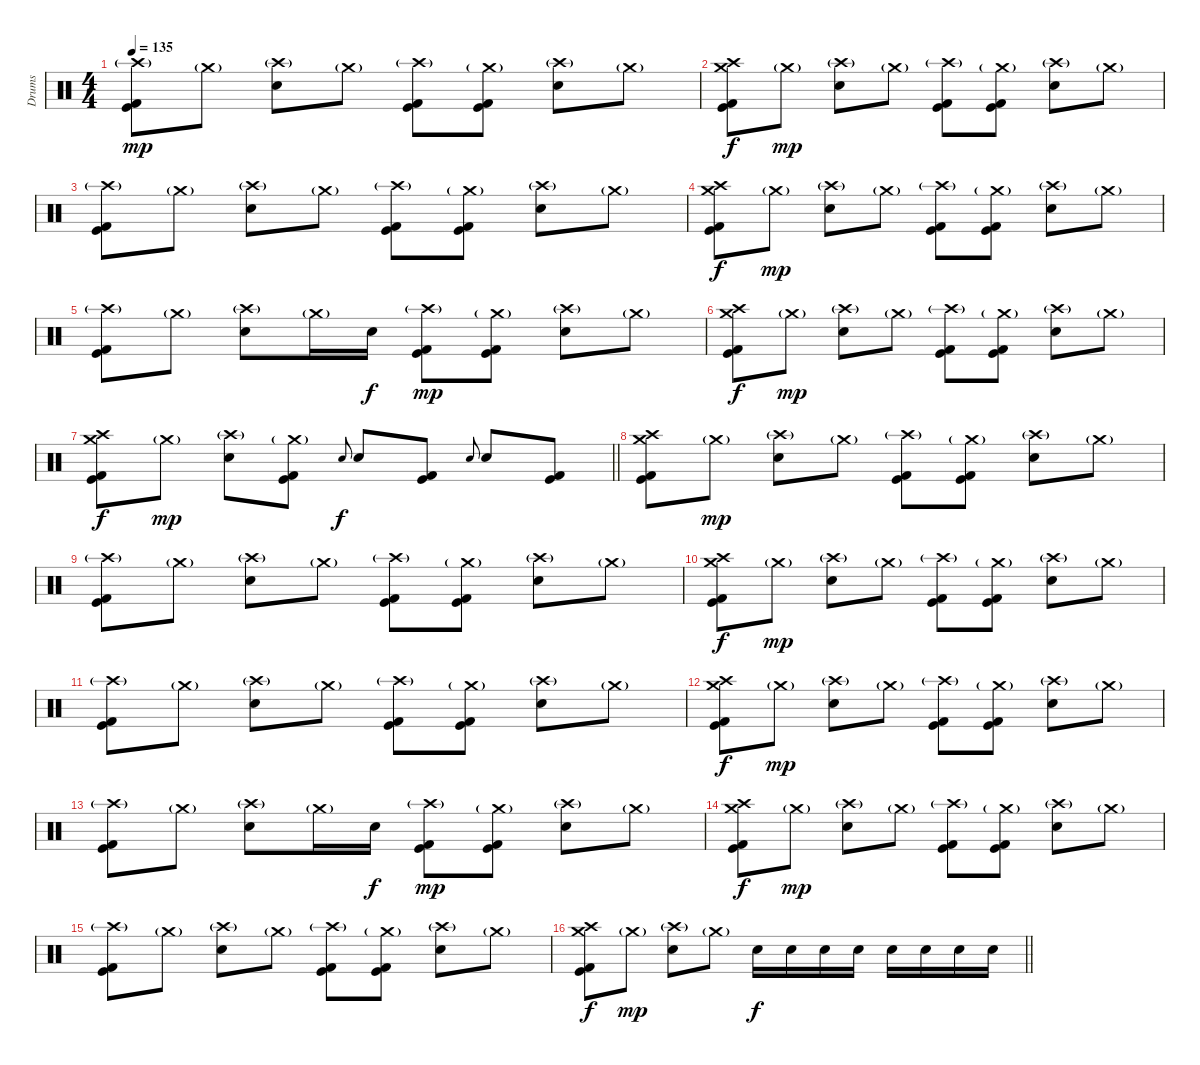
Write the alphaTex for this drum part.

\track ("Drums" "Drums") {instrument percussion}
\staff {score}
\articulation defaults
\ts (4 4)
\tempo 135
\clef neutral
\ks c
("Crash high (hit)"{g} "Kick (hit)" "Kick (hit) 2").8{dy mp} "Crash medium (hit)"{g}.8 ("Crash high (hit)"{g} "Electric Snare (hit)").8 "Crash medium (hit)"{g}.8 ("Crash high (hit)"{g} "Kick (hit)" "Kick (hit) 2").8 ("Crash medium (hit)"{g} "Kick (hit)" "Kick (hit) 2").8 ("Crash high (hit)"{g} "Electric Snare (hit)").8 "Crash medium (hit)"{g}.8 |
("Crash high (hit)" "Crash medium (hit)" "Kick (hit)" "Kick (hit) 2").8{dy f} "Crash medium (hit)"{g}.8{dy mp} ("Crash high (hit)"{g} "Electric Snare (hit)").8 "Crash medium (hit)"{g}.8 ("Crash high (hit)"{g} "Kick (hit)" "Kick (hit) 2").8 ("Crash medium (hit)"{g} "Kick (hit)" "Kick (hit) 2").8 ("Crash high (hit)"{g} "Electric Snare (hit)").8 "Crash medium (hit)"{g}.8 |
("Crash high (hit)"{g} "Kick (hit)" "Kick (hit) 2").8 "Crash medium (hit)"{g}.8 ("Crash high (hit)"{g} "Electric Snare (hit)").8 "Crash medium (hit)"{g}.8 ("Crash high (hit)"{g} "Kick (hit)" "Kick (hit) 2").8 ("Crash medium (hit)"{g} "Kick (hit)" "Kick (hit) 2").8 ("Crash high (hit)"{g} "Electric Snare (hit)").8 "Crash medium (hit)"{g}.8 |
("Crash high (hit)" "Crash medium (hit)" "Kick (hit)" "Kick (hit) 2").8{dy f} "Crash medium (hit)"{g}.8{dy mp} ("Crash high (hit)"{g} "Electric Snare (hit)").8 "Crash medium (hit)"{g}.8 ("Crash high (hit)"{g} "Kick (hit)" "Kick (hit) 2").8 ("Crash medium (hit)"{g} "Kick (hit)" "Kick (hit) 2").8 ("Crash high (hit)"{g} "Electric Snare (hit)").8 "Crash medium (hit)"{g}.8 |
("Crash high (hit)"{g} "Kick (hit)" "Kick (hit) 2").8 "Crash medium (hit)"{g}.8 ("Crash high (hit)"{g} "Electric Snare (hit)").8 "Crash medium (hit)"{g}.16 "Electric Snare (hit)".16{dy f} ("Crash high (hit)"{g} "Kick (hit)" "Kick (hit) 2").8{dy mp} ("Crash medium (hit)"{g} "Kick (hit)" "Kick (hit) 2").8 ("Crash high (hit)"{g} "Electric Snare (hit)").8 "Crash medium (hit)"{g}.8 |
("Crash high (hit)" "Crash medium (hit)" "Kick (hit)" "Kick (hit) 2").8{dy f} "Crash medium (hit)"{g}.8{dy mp} ("Crash high (hit)"{g} "Electric Snare (hit)").8 "Crash medium (hit)"{g}.8 ("Crash high (hit)"{g} "Kick (hit)" "Kick (hit) 2").8 ("Crash medium (hit)"{g} "Kick (hit)" "Kick (hit) 2").8 ("Crash high (hit)"{g} "Electric Snare (hit)").8 "Crash medium (hit)"{g}.8 |
\barLineRight lightlight
("Crash high (hit)" "Crash medium (hit)" "Kick (hit)" "Kick (hit) 2").8{dy f} "Crash medium (hit)"{g}.8{dy mp} ("Crash high (hit)"{g} "Electric Snare (hit)").8 ("Crash medium (hit)"{g} "Kick (hit)" "Kick (hit) 2").8 "Electric Snare (hit)".8{gr onbeat dy f} "Electric Snare (hit)".8 ("Kick (hit)" "Kick (hit) 2").8 "Electric Snare (hit)".8{gr onbeat} "Electric Snare (hit)".8 ("Kick (hit)" "Kick (hit) 2").8 |
\section ("" "")
("Crash high (hit)" "Crash medium (hit)" "Kick (hit)" "Kick (hit) 2").8 "Crash medium (hit)"{g}.8{dy mp} ("Crash high (hit)"{g} "Electric Snare (hit)").8 "Crash medium (hit)"{g}.8 ("Crash high (hit)"{g} "Kick (hit)" "Kick (hit) 2").8 ("Crash medium (hit)"{g} "Kick (hit)" "Kick (hit) 2").8 ("Crash high (hit)"{g} "Electric Snare (hit)").8 "Crash medium (hit)"{g}.8 |
("Crash high (hit)"{g} "Kick (hit)" "Kick (hit) 2").8 "Crash medium (hit)"{g}.8 ("Crash high (hit)"{g} "Electric Snare (hit)").8 "Crash medium (hit)"{g}.8 ("Crash high (hit)"{g} "Kick (hit)" "Kick (hit) 2").8 ("Crash medium (hit)"{g} "Kick (hit)" "Kick (hit) 2").8 ("Crash high (hit)"{g} "Electric Snare (hit)").8 "Crash medium (hit)"{g}.8 |
("Crash high (hit)" "Crash medium (hit)" "Kick (hit)" "Kick (hit) 2").8{dy f} "Crash medium (hit)"{g}.8{dy mp} ("Crash high (hit)"{g} "Electric Snare (hit)").8 "Crash medium (hit)"{g}.8 ("Crash high (hit)"{g} "Kick (hit)" "Kick (hit) 2").8 ("Crash medium (hit)"{g} "Kick (hit)" "Kick (hit) 2").8 ("Crash high (hit)"{g} "Electric Snare (hit)").8 "Crash medium (hit)"{g}.8 |
("Crash high (hit)"{g} "Kick (hit)" "Kick (hit) 2").8 "Crash medium (hit)"{g}.8 ("Crash high (hit)"{g} "Electric Snare (hit)").8 "Crash medium (hit)"{g}.8 ("Crash high (hit)"{g} "Kick (hit)" "Kick (hit) 2").8 ("Crash medium (hit)"{g} "Kick (hit)" "Kick (hit) 2").8 ("Crash high (hit)"{g} "Electric Snare (hit)").8 "Crash medium (hit)"{g}.8 |
("Crash high (hit)" "Crash medium (hit)" "Kick (hit)" "Kick (hit) 2").8{dy f} "Crash medium (hit)"{g}.8{dy mp} ("Crash high (hit)"{g} "Electric Snare (hit)").8 "Crash medium (hit)"{g}.8 ("Crash high (hit)"{g} "Kick (hit)" "Kick (hit) 2").8 ("Crash medium (hit)"{g} "Kick (hit)" "Kick (hit) 2").8 ("Crash high (hit)"{g} "Electric Snare (hit)").8 "Crash medium (hit)"{g}.8 |
("Crash high (hit)"{g} "Kick (hit)" "Kick (hit) 2").8 "Crash medium (hit)"{g}.8 ("Crash high (hit)"{g} "Electric Snare (hit)").8 "Crash medium (hit)"{g}.16 "Electric Snare (hit)".16{dy f} ("Crash high (hit)"{g} "Kick (hit)" "Kick (hit) 2").8{dy mp} ("Crash medium (hit)"{g} "Kick (hit)" "Kick (hit) 2").8 ("Crash high (hit)"{g} "Electric Snare (hit)").8 "Crash medium (hit)"{g}.8 |
("Crash high (hit)" "Crash medium (hit)" "Kick (hit)" "Kick (hit) 2").8{dy f} "Crash medium (hit)"{g}.8{dy mp} ("Crash high (hit)"{g} "Electric Snare (hit)").8 "Crash medium (hit)"{g}.8 ("Crash high (hit)"{g} "Kick (hit)" "Kick (hit) 2").8 ("Crash medium (hit)"{g} "Kick (hit)" "Kick (hit) 2").8 ("Crash high (hit)"{g} "Electric Snare (hit)").8 "Crash medium (hit)"{g}.8 |
("Crash high (hit)"{g} "Kick (hit)" "Kick (hit) 2").8 "Crash medium (hit)"{g}.8 ("Crash high (hit)"{g} "Electric Snare (hit)").8 "Crash medium (hit)"{g}.8 ("Crash high (hit)"{g} "Kick (hit)" "Kick (hit) 2").8 ("Crash medium (hit)"{g} "Kick (hit)" "Kick (hit) 2").8 ("Crash high (hit)"{g} "Electric Snare (hit)").8 "Crash medium (hit)"{g}.8 |
\barLineRight lightlight
("Crash high (hit)" "Crash medium (hit)" "Kick (hit)" "Kick (hit) 2").8{dy f} "Crash medium (hit)"{g}.8{dy mp} ("Crash high (hit)"{g} "Electric Snare (hit)").8 "Crash medium (hit)"{g}.8 "Electric Snare (hit)".16{dy f} "Electric Snare (hit)".16 "Electric Snare (hit)".16 "Electric Snare (hit)".16 "Electric Snare (hit)".16 "Electric Snare (hit)".16 "Electric Snare (hit)".16 "Electric Snare (hit)".16
